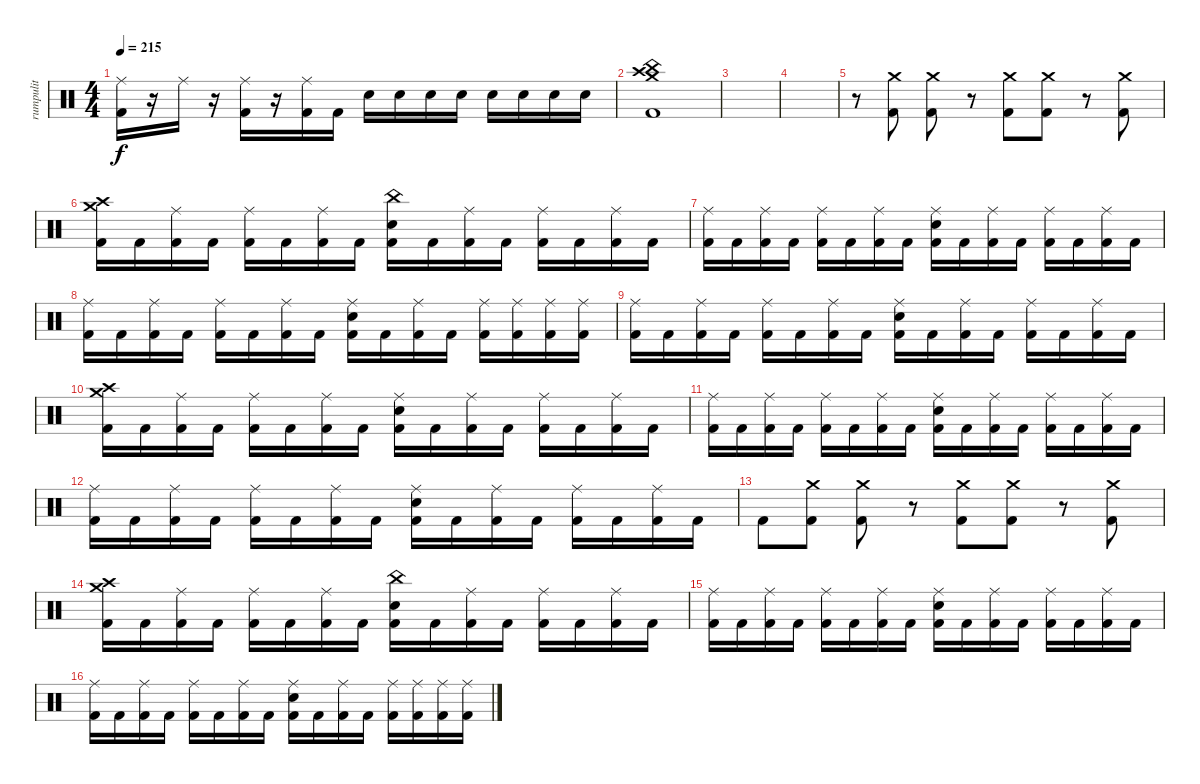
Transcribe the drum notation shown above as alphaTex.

\track ("rumpulit" "rumpulit") {instrument percussion}
\staff {score}
\articulation defaults
\ts (4 4)
\tempo 215
\clef neutral
\ks c
("Ride (middle)" "Kick (hit) 2").16{dy f} r.16 "Ride (middle)".16 r.16 ("Ride (middle)" "Kick (hit) 2").16 r.16 ("Ride (middle)" "Kick (hit) 2").16 "Kick (hit) 2".16 "Electric Snare (hit)".16 "Electric Snare (hit)".16 "Electric Snare (hit)".16 "Electric Snare (hit)".16 "Electric Snare (hit)".16 "Electric Snare (hit)".16 "Electric Snare (hit)".16 "Electric Snare (hit)".16 |
("Crash high (hit)" "China (hit)" "Kick (hit) 2" "Crash medium (hit)").1 |
|
|
r.8 ("Crash medium (hit)" "Kick (hit) 2").8 ("Crash medium (hit)" "Kick (hit) 2").8 r.8 ("Crash medium (hit)" "Kick (hit) 2").8 ("Crash medium (hit)" "Kick (hit) 2").8 r.8 ("Crash medium (hit)" "Kick (hit) 2").8 |
("Crash high (hit)" "Kick (hit) 2" "Crash medium (hit)").16 "Kick (hit) 2".16 ("Ride (middle)" "Kick (hit) 2").16 "Kick (hit) 2".16 ("Ride (middle)" "Kick (hit) 2").16 "Kick (hit) 2".16 ("Ride (middle)" "Kick (hit) 2").16 "Kick (hit) 2".16 ("China (hit)" "Kick (hit) 2" "Electric Snare (hit)").16 "Kick (hit) 2".16 ("Ride (middle)" "Kick (hit) 2").16 "Kick (hit) 2".16 ("Ride (middle)" "Kick (hit) 2").16 "Kick (hit) 2".16 ("Ride (middle)" "Kick (hit) 2").16 "Kick (hit) 2".16 |
("Ride (middle)" "Kick (hit) 2").16 "Kick (hit) 2".16 ("Ride (middle)" "Kick (hit) 2").16 "Kick (hit) 2".16 ("Ride (middle)" "Kick (hit) 2").16 "Kick (hit) 2".16 ("Ride (middle)" "Kick (hit) 2").16 "Kick (hit) 2".16 ("Ride (middle)" "Kick (hit) 2" "Electric Snare (hit)").16 "Kick (hit) 2".16 ("Ride (middle)" "Kick (hit) 2").16 "Kick (hit) 2".16 ("Ride (middle)" "Kick (hit) 2").16 "Kick (hit) 2".16 ("Ride (middle)" "Kick (hit) 2").16 "Kick (hit) 2".16 |
("Ride (middle)" "Kick (hit) 2").16 "Kick (hit) 2".16 ("Ride (middle)" "Kick (hit) 2").16 "Kick (hit) 2".16 ("Ride (middle)" "Kick (hit) 2").16 "Kick (hit) 2".16 ("Ride (middle)" "Kick (hit) 2").16 "Kick (hit) 2".16 ("Ride (middle)" "Kick (hit) 2" "Electric Snare (hit)").16 "Kick (hit) 2".16 ("Ride (middle)" "Kick (hit) 2").16 "Kick (hit) 2".16 ("Ride (middle)" "Kick (hit) 2").16 ("Ride (middle)" "Kick (hit) 2").16 ("Ride (middle)" "Kick (hit) 2").16 ("Ride (middle)" "Kick (hit) 2").16 |
("Ride (middle)" "Kick (hit) 2").16 "Kick (hit) 2".16 ("Ride (middle)" "Kick (hit) 2").16 "Kick (hit) 2".16 ("Ride (middle)" "Kick (hit) 2").16 "Kick (hit) 2".16 ("Ride (middle)" "Kick (hit) 2").16 "Kick (hit) 2".16 ("Ride (middle)" "Kick (hit) 2" "Electric Snare (hit)").16 "Kick (hit) 2".16 ("Ride (middle)" "Kick (hit) 2").16 "Kick (hit) 2".16 ("Ride (middle)" "Kick (hit) 2").16 "Kick (hit) 2".16 ("Ride (middle)" "Kick (hit) 2").16 "Kick (hit) 2".16 |
("Crash high (hit)" "Kick (hit) 2" "Crash medium (hit)").16 "Kick (hit) 2".16 ("Ride (middle)" "Kick (hit) 2").16 "Kick (hit) 2".16 ("Ride (middle)" "Kick (hit) 2").16 "Kick (hit) 2".16 ("Ride (middle)" "Kick (hit) 2").16 "Kick (hit) 2".16 ("Ride (middle)" "Kick (hit) 2" "Electric Snare (hit)").16 "Kick (hit) 2".16 ("Ride (middle)" "Kick (hit) 2").16 "Kick (hit) 2".16 ("Ride (middle)" "Kick (hit) 2").16 "Kick (hit) 2".16 ("Ride (middle)" "Kick (hit) 2").16 "Kick (hit) 2".16 |
("Ride (middle)" "Kick (hit) 2").16 "Kick (hit) 2".16 ("Ride (middle)" "Kick (hit) 2").16 "Kick (hit) 2".16 ("Ride (middle)" "Kick (hit) 2").16 "Kick (hit) 2".16 ("Ride (middle)" "Kick (hit) 2").16 "Kick (hit) 2".16 ("Ride (middle)" "Kick (hit) 2" "Electric Snare (hit)").16 "Kick (hit) 2".16 ("Ride (middle)" "Kick (hit) 2").16 "Kick (hit) 2".16 ("Ride (middle)" "Kick (hit) 2").16 "Kick (hit) 2".16 ("Ride (middle)" "Kick (hit) 2").16 "Kick (hit) 2".16 |
("Ride (middle)" "Kick (hit) 2").16 "Kick (hit) 2".16 ("Ride (middle)" "Kick (hit) 2").16 "Kick (hit) 2".16 ("Ride (middle)" "Kick (hit) 2").16 "Kick (hit) 2".16 ("Ride (middle)" "Kick (hit) 2").16 "Kick (hit) 2".16 ("Ride (middle)" "Kick (hit) 2" "Electric Snare (hit)").16 "Kick (hit) 2".16 ("Ride (middle)" "Kick (hit) 2").16 "Kick (hit) 2".16 ("Ride (middle)" "Kick (hit) 2").16 "Kick (hit) 2".16 ("Ride (middle)" "Kick (hit) 2").16 "Kick (hit) 2".16 |
"Kick (hit) 2".8 ("Crash medium (hit)" "Kick (hit) 2").8 ("Crash medium (hit)" "Kick (hit) 2").8 r.8 ("Crash medium (hit)" "Kick (hit) 2").8 ("Crash medium (hit)" "Kick (hit) 2").8 r.8 ("Crash medium (hit)" "Kick (hit) 2").8 |
("Crash high (hit)" "Kick (hit) 2" "Crash medium (hit)").16 "Kick (hit) 2".16 ("Ride (middle)" "Kick (hit) 2").16 "Kick (hit) 2".16 ("Ride (middle)" "Kick (hit) 2").16 "Kick (hit) 2".16 ("Ride (middle)" "Kick (hit) 2").16 "Kick (hit) 2".16 ("China (hit)" "Kick (hit) 2" "Electric Snare (hit)").16 "Kick (hit) 2".16 ("Ride (middle)" "Kick (hit) 2").16 "Kick (hit) 2".16 ("Ride (middle)" "Kick (hit) 2").16 "Kick (hit) 2".16 ("Ride (middle)" "Kick (hit) 2").16 "Kick (hit) 2".16 |
("Ride (middle)" "Kick (hit) 2").16 "Kick (hit) 2".16 ("Ride (middle)" "Kick (hit) 2").16 "Kick (hit) 2".16 ("Ride (middle)" "Kick (hit) 2").16 "Kick (hit) 2".16 ("Ride (middle)" "Kick (hit) 2").16 "Kick (hit) 2".16 ("Ride (middle)" "Kick (hit) 2" "Electric Snare (hit)").16 "Kick (hit) 2".16 ("Ride (middle)" "Kick (hit) 2").16 "Kick (hit) 2".16 ("Ride (middle)" "Kick (hit) 2").16 "Kick (hit) 2".16 ("Ride (middle)" "Kick (hit) 2").16 "Kick (hit) 2".16 |
("Ride (middle)" "Kick (hit) 2").16 "Kick (hit) 2".16 ("Ride (middle)" "Kick (hit) 2").16 "Kick (hit) 2".16 ("Ride (middle)" "Kick (hit) 2").16 "Kick (hit) 2".16 ("Ride (middle)" "Kick (hit) 2").16 "Kick (hit) 2".16 ("Ride (middle)" "Kick (hit) 2" "Electric Snare (hit)").16 "Kick (hit) 2".16 ("Ride (middle)" "Kick (hit) 2").16 "Kick (hit) 2".16 ("Ride (middle)" "Kick (hit) 2").16 ("Ride (middle)" "Kick (hit) 2").16 ("Ride (middle)" "Kick (hit) 2").16 ("Ride (middle)" "Kick (hit) 2").16
